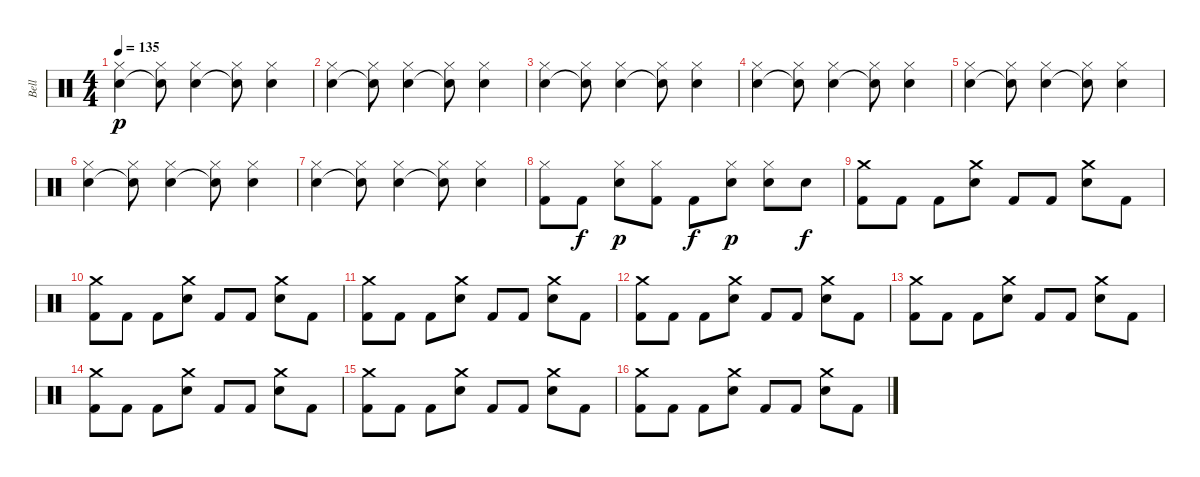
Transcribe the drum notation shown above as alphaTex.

\track ("Bell" "Bell") {instrument percussion}
\staff {score}
\articulation defaults
\ts (4 4)
\tempo 135
\clef neutral
\ks c
("Hi-Hat (closed)" "Snare (hit) 2").4{dy p} ("Hi-Hat (closed)" "Snare (hit) 2"{t}).8 ("Hi-Hat (closed)" "Snare (hit) 2").4 ("Hi-Hat (closed)" "Snare (hit) 2"{t}).8 ("Hi-Hat (closed)" "Snare (hit) 2").4 |
("Hi-Hat (closed)" "Snare (hit) 2").4 ("Hi-Hat (closed)" "Snare (hit) 2"{t}).8 ("Hi-Hat (closed)" "Snare (hit) 2").4 ("Hi-Hat (closed)" "Snare (hit) 2"{t}).8 ("Hi-Hat (closed)" "Snare (hit) 2").4 |
("Hi-Hat (closed)" "Snare (hit) 2").4 ("Hi-Hat (closed)" "Snare (hit) 2"{t}).8 ("Hi-Hat (closed)" "Snare (hit) 2").4 ("Hi-Hat (closed)" "Snare (hit) 2"{t}).8 ("Hi-Hat (closed)" "Snare (hit) 2").4 |
("Hi-Hat (closed)" "Snare (hit) 2").4 ("Hi-Hat (closed)" "Snare (hit) 2"{t}).8 ("Hi-Hat (closed)" "Snare (hit) 2").4 ("Hi-Hat (closed)" "Snare (hit) 2"{t}).8 ("Hi-Hat (closed)" "Snare (hit) 2").4 |
("Hi-Hat (closed)" "Snare (hit) 2").4 ("Hi-Hat (closed)" "Snare (hit) 2"{t}).8 ("Hi-Hat (closed)" "Snare (hit) 2").4 ("Hi-Hat (closed)" "Snare (hit) 2"{t}).8 ("Hi-Hat (closed)" "Snare (hit) 2").4 |
("Hi-Hat (closed)" "Snare (hit) 2").4 ("Hi-Hat (closed)" "Snare (hit) 2"{t}).8 ("Hi-Hat (closed)" "Snare (hit) 2").4 ("Hi-Hat (closed)" "Snare (hit) 2"{t}).8 ("Hi-Hat (closed)" "Snare (hit) 2").4 |
("Hi-Hat (closed)" "Snare (hit) 2").4 ("Hi-Hat (closed)" "Snare (hit) 2"{t}).8 ("Hi-Hat (closed)" "Snare (hit) 2").4 ("Hi-Hat (closed)" "Snare (hit) 2"{t}).8 ("Hi-Hat (closed)" "Snare (hit) 2").4 |
("Hi-Hat (closed)" "Kick (hit) 2").8 "Kick (hit) 2".8{dy f} ("Hi-Hat (closed)" "Snare (hit) 2").8{dy p} ("Hi-Hat (closed)" "Kick (hit) 2").8 "Kick (hit) 2".8{dy f} ("Hi-Hat (closed)" "Snare (hit) 2").8{dy p} ("Hi-Hat (closed)" "Snare (hit) 2").8 "Snare (hit) 2".8{dy f} |
("Crash medium (hit)" "Kick (hit) 2").8 "Kick (hit) 2".8 "Kick (hit) 2".8 ("Crash medium (hit)" "Snare (hit) 2").8 "Kick (hit) 2".8 "Kick (hit) 2".8 ("Crash medium (hit)" "Snare (hit) 2").8 "Kick (hit) 2".8 |
("Crash medium (hit)" "Kick (hit) 2").8 "Kick (hit) 2".8 "Kick (hit) 2".8 ("Crash medium (hit)" "Snare (hit) 2").8 "Kick (hit) 2".8 "Kick (hit) 2".8 ("Crash medium (hit)" "Snare (hit) 2").8 "Kick (hit) 2".8 |
("Crash medium (hit)" "Kick (hit) 2").8 "Kick (hit) 2".8 "Kick (hit) 2".8 ("Crash medium (hit)" "Snare (hit) 2").8 "Kick (hit) 2".8 "Kick (hit) 2".8 ("Crash medium (hit)" "Snare (hit) 2").8 "Kick (hit) 2".8 |
("Crash medium (hit)" "Kick (hit) 2").8 "Kick (hit) 2".8 "Kick (hit) 2".8 ("Crash medium (hit)" "Snare (hit) 2").8 "Kick (hit) 2".8 "Kick (hit) 2".8 ("Crash medium (hit)" "Snare (hit) 2").8 "Kick (hit) 2".8 |
("Crash medium (hit)" "Kick (hit) 2").8 "Kick (hit) 2".8 "Kick (hit) 2".8 ("Crash medium (hit)" "Snare (hit) 2").8 "Kick (hit) 2".8 "Kick (hit) 2".8 ("Crash medium (hit)" "Snare (hit) 2").8 "Kick (hit) 2".8 |
("Crash medium (hit)" "Kick (hit) 2").8 "Kick (hit) 2".8 "Kick (hit) 2".8 ("Crash medium (hit)" "Snare (hit) 2").8 "Kick (hit) 2".8 "Kick (hit) 2".8 ("Crash medium (hit)" "Snare (hit) 2").8 "Kick (hit) 2".8 |
("Crash medium (hit)" "Kick (hit) 2").8 "Kick (hit) 2".8 "Kick (hit) 2".8 ("Crash medium (hit)" "Snare (hit) 2").8 "Kick (hit) 2".8 "Kick (hit) 2".8 ("Crash medium (hit)" "Snare (hit) 2").8 "Kick (hit) 2".8 |
("Crash medium (hit)" "Kick (hit) 2").8 "Kick (hit) 2".8 "Kick (hit) 2".8 ("Crash medium (hit)" "Snare (hit) 2").8 "Kick (hit) 2".8 "Kick (hit) 2".8 ("Crash medium (hit)" "Snare (hit) 2").8 "Kick (hit) 2".8
